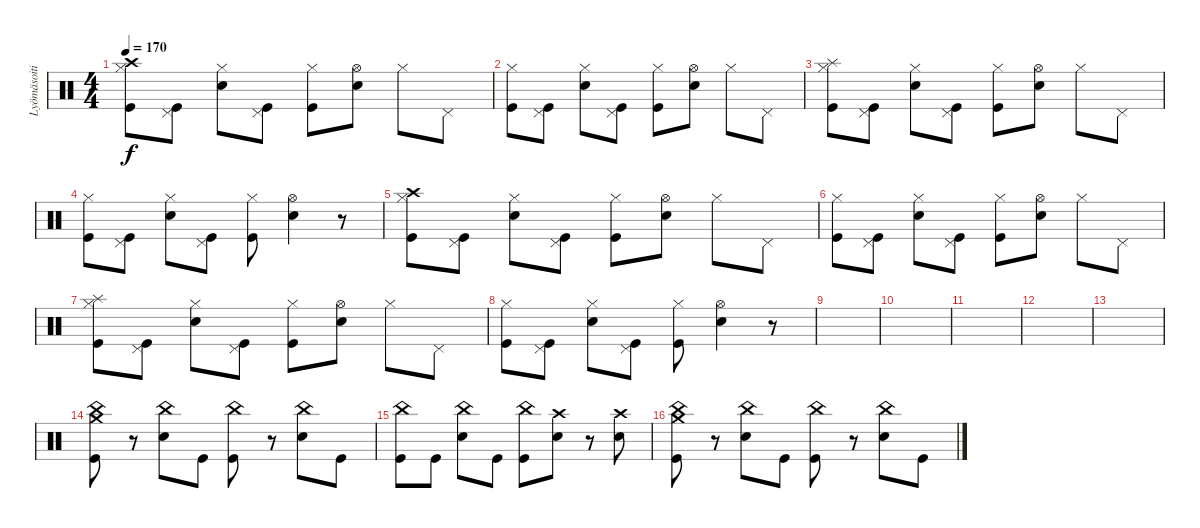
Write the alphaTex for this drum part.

\track ("Lyömäsoitin" "Lyömäsoiti") {instrument percussion}
\staff {score}
\articulation defaults
\ts (4 4)
\tempo 170
\clef neutral
\ks c
("Crash high (hit)" "Hi-Hat (closed)" "Kick (hit)").8{dy f} ("Pedal Hi-Hat (hit)" "Kick (hit)").8 ("Hi-Hat (closed)" "Snare (hit) 2").8 ("Pedal Hi-Hat (hit)" "Kick (hit)").8 ("Hi-Hat (closed)" "Kick (hit)").8 ("Hi-Hat (open)" "Snare (hit) 2").8 "Hi-Hat (closed)".8 "Pedal Hi-Hat (hit)".8 |
("Hi-Hat (closed)" "Kick (hit)").8 ("Pedal Hi-Hat (hit)" "Kick (hit)").8 ("Hi-Hat (closed)" "Snare (hit) 2").8 ("Pedal Hi-Hat (hit)" "Kick (hit)").8 ("Hi-Hat (closed)" "Kick (hit)").8 ("Hi-Hat (open)" "Snare (hit) 2").8 "Hi-Hat (closed)".8 "Pedal Hi-Hat (hit)".8 |
("Splash (hit)" "Hi-Hat (closed)" "Kick (hit)").8 ("Pedal Hi-Hat (hit)" "Kick (hit)").8 ("Hi-Hat (closed)" "Snare (hit) 2").8 ("Pedal Hi-Hat (hit)" "Kick (hit)").8 ("Hi-Hat (closed)" "Kick (hit)").8 ("Hi-Hat (open)" "Snare (hit) 2").8 "Hi-Hat (closed)".8 "Pedal Hi-Hat (hit)".8 |
("Hi-Hat (closed)" "Kick (hit)").8 ("Pedal Hi-Hat (hit)" "Kick (hit)").8 ("Hi-Hat (closed)" "Snare (hit) 2").8 ("Pedal Hi-Hat (hit)" "Kick (hit)").8 ("Hi-Hat (closed)" "Kick (hit)").8 ("Hi-Hat (open)" "Snare (hit) 2").4 r.8 |
("Crash high (hit)" "Hi-Hat (closed)" "Kick (hit)").8 ("Pedal Hi-Hat (hit)" "Kick (hit)").8 ("Hi-Hat (closed)" "Snare (hit) 2").8 ("Pedal Hi-Hat (hit)" "Kick (hit)").8 ("Hi-Hat (closed)" "Kick (hit)").8 ("Hi-Hat (open)" "Snare (hit) 2").8 "Hi-Hat (closed)".8 "Pedal Hi-Hat (hit)".8 |
("Hi-Hat (closed)" "Kick (hit)").8 ("Pedal Hi-Hat (hit)" "Kick (hit)").8 ("Hi-Hat (closed)" "Snare (hit) 2").8 ("Pedal Hi-Hat (hit)" "Kick (hit)").8 ("Hi-Hat (closed)" "Kick (hit)").8 ("Hi-Hat (open)" "Snare (hit) 2").8 "Hi-Hat (closed)".8 "Pedal Hi-Hat (hit)".8 |
("Splash (hit)" "Hi-Hat (closed)" "Kick (hit)").8 ("Pedal Hi-Hat (hit)" "Kick (hit)").8 ("Hi-Hat (closed)" "Snare (hit) 2").8 ("Pedal Hi-Hat (hit)" "Kick (hit)").8 ("Hi-Hat (closed)" "Kick (hit)").8 ("Hi-Hat (open)" "Snare (hit) 2").8 "Hi-Hat (closed)".8 "Pedal Hi-Hat (hit)".8 |
("Hi-Hat (closed)" "Kick (hit)").8 ("Pedal Hi-Hat (hit)" "Kick (hit)").8 ("Hi-Hat (closed)" "Snare (hit) 2").8 ("Pedal Hi-Hat (hit)" "Kick (hit)").8 ("Hi-Hat (closed)" "Kick (hit)").8 ("Hi-Hat (open)" "Snare (hit) 2").4 r.8 |
|
|
|
|
|
("Crash medium (hit)" "China (hit)" "Kick (hit)").8 r.8 ("China (hit)" "Snare (hit) 2").8 "Kick (hit)".8 ("China (hit)" "Kick (hit)").8 r.8 ("China (hit)" "Snare (hit) 2").8 "Kick (hit)".8 |
("China (hit)" "Kick (hit)").8 "Kick (hit)".8 ("China (hit)" "Snare (hit) 2").8 "Kick (hit)".8 ("China (hit)" "Kick (hit)").8 ("Crash high (hit)" "Snare (hit) 2").8 r.8 ("Crash high (hit)" "Snare (hit) 2").8 |
("Crash medium (hit)" "China (hit)" "Kick (hit)").8 r.8 ("China (hit)" "Snare (hit) 2").8 "Kick (hit)".8 ("China (hit)" "Kick (hit)").8 r.8 ("China (hit)" "Snare (hit) 2").8 "Kick (hit)".8
